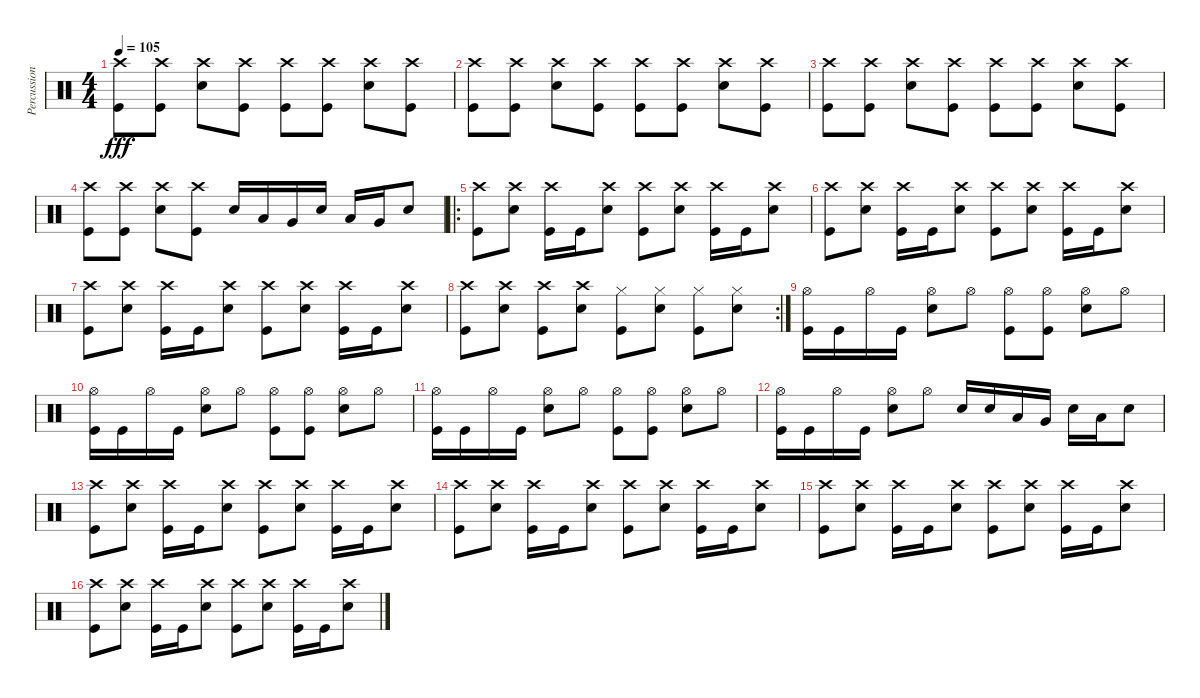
\track ("Percussions" "Percussion") {instrument percussion}
\staff {score}
\articulation defaults
\ts (4 4)
\tempo 105
\clef neutral
\ks c
("Crash high (hit)" "Kick (hit)").8{dy fff} ("Crash high (hit)" "Kick (hit)").8 ("Crash high (hit)" "Electric Snare (hit)").8 ("Crash high (hit)" "Kick (hit)").8 ("Crash high (hit)" "Kick (hit)").8 ("Crash high (hit)" "Kick (hit)").8 ("Crash high (hit)" "Electric Snare (hit)").8 ("Crash high (hit)" "Kick (hit)").8 |
("Crash high (hit)" "Kick (hit)").8 ("Crash high (hit)" "Kick (hit)").8 ("Crash high (hit)" "Electric Snare (hit)").8 ("Crash high (hit)" "Kick (hit)").8 ("Crash high (hit)" "Kick (hit)").8 ("Crash high (hit)" "Kick (hit)").8 ("Crash high (hit)" "Electric Snare (hit)").8 ("Crash high (hit)" "Kick (hit)").8 |
("Crash high (hit)" "Kick (hit)").8 ("Crash high (hit)" "Kick (hit)").8 ("Crash high (hit)" "Electric Snare (hit)").8 ("Crash high (hit)" "Kick (hit)").8 ("Crash high (hit)" "Kick (hit)").8 ("Crash high (hit)" "Kick (hit)").8 ("Crash high (hit)" "Electric Snare (hit)").8 ("Crash high (hit)" "Kick (hit)").8 |
("Crash high (hit)" "Kick (hit)").8 ("Crash high (hit)" "Kick (hit)").8 ("Crash high (hit)" "Electric Snare (hit)").8 ("Crash high (hit)" "Kick (hit)").8 "Electric Snare (hit)".16 "Low Tom (hit)".16 "Very Low Tom (hit)".16 "Electric Snare (hit)".16 "Low Tom (hit)".16 "Very Low Tom (hit)".16 "Electric Snare (hit)".8 |
\ro
("Crash high (hit)" "Kick (hit)").8 ("Crash high (hit)" "Electric Snare (hit)").8 ("Crash high (hit)" "Kick (hit)").16 "Kick (hit)".16 ("Crash high (hit)" "Electric Snare (hit)").8 ("Crash high (hit)" "Kick (hit)").8 ("Crash high (hit)" "Electric Snare (hit)").8 ("Crash high (hit)" "Kick (hit)").16 "Kick (hit)".16 ("Crash high (hit)" "Electric Snare (hit)").8 |
("Crash high (hit)" "Kick (hit)").8 ("Crash high (hit)" "Electric Snare (hit)").8 ("Crash high (hit)" "Kick (hit)").16 "Kick (hit)".16 ("Crash high (hit)" "Electric Snare (hit)").8 ("Crash high (hit)" "Kick (hit)").8 ("Crash high (hit)" "Electric Snare (hit)").8 ("Crash high (hit)" "Kick (hit)").16 "Kick (hit)".16 ("Crash high (hit)" "Electric Snare (hit)").8 |
("Crash high (hit)" "Kick (hit)").8 ("Crash high (hit)" "Electric Snare (hit)").8 ("Crash high (hit)" "Kick (hit)").16 "Kick (hit)".16 ("Crash high (hit)" "Electric Snare (hit)").8 ("Crash high (hit)" "Kick (hit)").8 ("Crash high (hit)" "Electric Snare (hit)").8 ("Crash high (hit)" "Kick (hit)").16 "Kick (hit)".16 ("Crash high (hit)" "Electric Snare (hit)").8 |
\rc 2
("Crash high (hit)" "Kick (hit)").8 ("Crash high (hit)" "Electric Snare (hit)").8 ("Crash high (hit)" "Kick (hit)").8 ("Crash high (hit)" "Electric Snare (hit)").8 ("Hi-Hat (closed)" "Kick (hit)").8 ("Hi-Hat (closed)" "Electric Snare (hit)").8 ("Hi-Hat (closed)" "Kick (hit)").8 ("Hi-Hat (closed)" "Electric Snare (hit)").8 |
("Hi-Hat (open)" "Kick (hit)").16 "Kick (hit)".16 "Hi-Hat (open)".16 "Kick (hit)".16 ("Hi-Hat (open)" "Electric Snare (hit)").8 "Hi-Hat (open)".8 ("Hi-Hat (open)" "Kick (hit)").8 ("Hi-Hat (open)" "Kick (hit)").8 ("Hi-Hat (open)" "Electric Snare (hit)").8 "Hi-Hat (open)".8 |
("Hi-Hat (open)" "Kick (hit)").16 "Kick (hit)".16 "Hi-Hat (open)".16 "Kick (hit)".16 ("Hi-Hat (open)" "Electric Snare (hit)").8 "Hi-Hat (open)".8 ("Hi-Hat (open)" "Kick (hit)").8 ("Hi-Hat (open)" "Kick (hit)").8 ("Hi-Hat (open)" "Electric Snare (hit)").8 "Hi-Hat (open)".8 |
("Hi-Hat (open)" "Kick (hit)").16 "Kick (hit)".16 "Hi-Hat (open)".16 "Kick (hit)".16 ("Hi-Hat (open)" "Electric Snare (hit)").8 "Hi-Hat (open)".8 ("Hi-Hat (open)" "Kick (hit)").8 ("Hi-Hat (open)" "Kick (hit)").8 ("Hi-Hat (open)" "Electric Snare (hit)").8 "Hi-Hat (open)".8 |
("Hi-Hat (open)" "Kick (hit)").16 "Kick (hit)".16 "Hi-Hat (open)".16 "Kick (hit)".16 ("Hi-Hat (open)" "Electric Snare (hit)").8 "Hi-Hat (open)".8 "Electric Snare (hit)".16 "Electric Snare (hit)".16 "Low Tom (hit)".16 "Very Low Tom (hit)".16 "Electric Snare (hit)".16 "Low Tom (hit)".16 "Electric Snare (hit)".8 |
("Crash high (hit)" "Kick (hit)").8 ("Crash high (hit)" "Electric Snare (hit)").8 ("Crash high (hit)" "Kick (hit)").16 "Kick (hit)".16 ("Crash high (hit)" "Electric Snare (hit)").8 ("Crash high (hit)" "Kick (hit)").8 ("Crash high (hit)" "Electric Snare (hit)").8 ("Crash high (hit)" "Kick (hit)").16 "Kick (hit)".16 ("Crash high (hit)" "Electric Snare (hit)").8 |
("Crash high (hit)" "Kick (hit)").8 ("Crash high (hit)" "Electric Snare (hit)").8 ("Crash high (hit)" "Kick (hit)").16 "Kick (hit)".16 ("Crash high (hit)" "Electric Snare (hit)").8 ("Crash high (hit)" "Kick (hit)").8 ("Crash high (hit)" "Electric Snare (hit)").8 ("Crash high (hit)" "Kick (hit)").16 "Kick (hit)".16 ("Crash high (hit)" "Electric Snare (hit)").8 |
("Crash high (hit)" "Kick (hit)").8 ("Crash high (hit)" "Electric Snare (hit)").8 ("Crash high (hit)" "Kick (hit)").16 "Kick (hit)".16 ("Crash high (hit)" "Electric Snare (hit)").8 ("Crash high (hit)" "Kick (hit)").8 ("Crash high (hit)" "Electric Snare (hit)").8 ("Crash high (hit)" "Kick (hit)").16 "Kick (hit)".16 ("Crash high (hit)" "Electric Snare (hit)").8 |
("Crash high (hit)" "Kick (hit)").8 ("Crash high (hit)" "Electric Snare (hit)").8 ("Crash high (hit)" "Kick (hit)").16 "Kick (hit)".16 ("Crash high (hit)" "Electric Snare (hit)").8 ("Crash high (hit)" "Kick (hit)").8 ("Crash high (hit)" "Electric Snare (hit)").8 ("Crash high (hit)" "Kick (hit)").16 "Kick (hit)".16 ("Crash high (hit)" "Electric Snare (hit)").8
